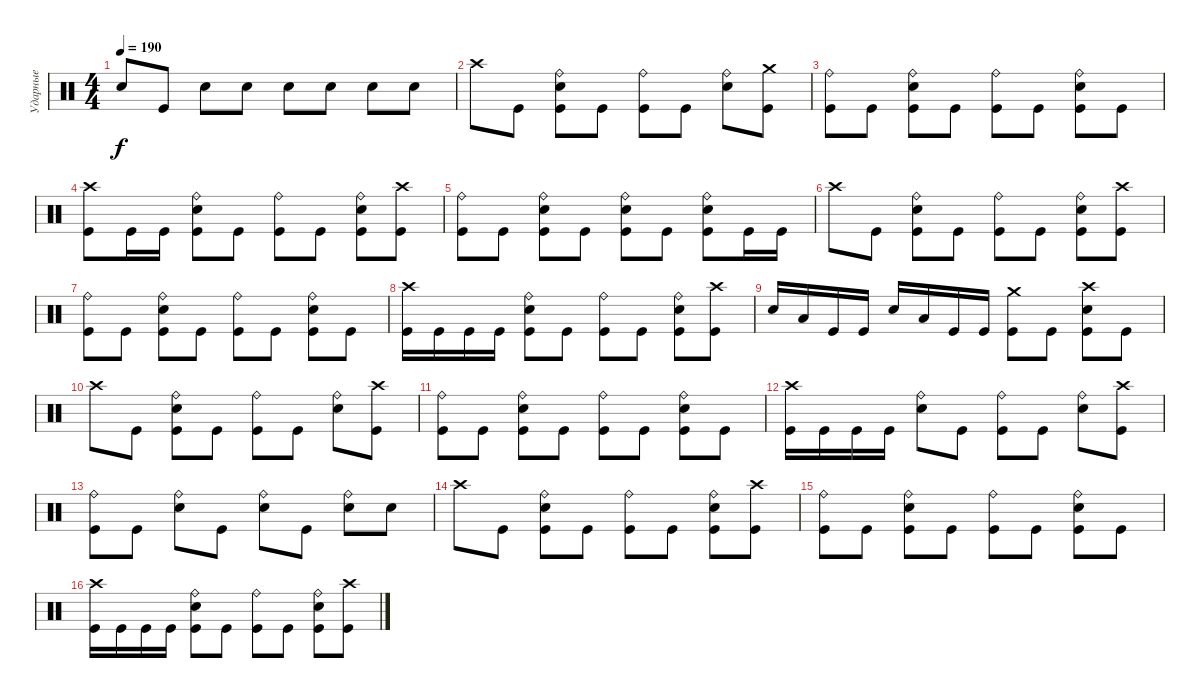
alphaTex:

\track ("Ударные" "Ударные") {instrument percussion}
\staff {score}
\articulation defaults
\ts (4 4)
\tempo 190
\clef neutral
\ks c "Electric Snare (hit)".8{dy f} "Kick (hit)".8 "Electric Snare (hit)".8 "Electric Snare (hit)".8 "Electric Snare (hit)".8 "Electric Snare (hit)".8 "Electric Snare (hit)".8 "Electric Snare (hit)".8
|
"Crash high (hit)".8 "Kick (hit)".8 ("Ride (bell)" "Electric Snare (hit)" "Kick (hit)").8 "Kick (hit)".8 ("Ride (bell)" "Kick (hit)").8 "Kick (hit)".8 ("Ride (bell)" "Electric Snare (hit)").8 ("Crash medium (hit)" "Kick (hit)").8 |
("Ride (bell)" "Kick (hit)").8 "Kick (hit)".8 ("Ride (bell)" "Electric Snare (hit)" "Kick (hit)").8 "Kick (hit)".8 ("Ride (bell)" "Kick (hit)").8 "Kick (hit)".8 ("Ride (bell)" "Electric Snare (hit)" "Kick (hit)").8 "Kick (hit)".8 |
("Crash high (hit)" "Kick (hit)").8 "Kick (hit)".16 "Kick (hit)".16 ("Ride (bell)" "Electric Snare (hit)" "Kick (hit)").8 "Kick (hit)".8 ("Ride (bell)" "Kick (hit)").8 "Kick (hit)".8 ("Ride (bell)" "Electric Snare (hit)" "Kick (hit)").8 ("Crash high (hit)" "Kick (hit)").8 |
("Ride (bell)" "Kick (hit)").8 "Kick (hit)".8 ("Ride (bell)" "Electric Snare (hit)" "Kick (hit)").8 "Kick (hit)".8 ("Ride (bell)" "Electric Snare (hit)" "Kick (hit)").8 "Kick (hit)".8 ("Ride (bell)" "Electric Snare (hit)" "Kick (hit)").8 "Kick (hit)".16 "Kick (hit)".16 |
"Crash high (hit)".8 "Kick (hit)".8 ("Ride (bell)" "Electric Snare (hit)" "Kick (hit)").8 "Kick (hit)".8 ("Ride (bell)" "Kick (hit)").8 "Kick (hit)".8 ("Ride (bell)" "Electric Snare (hit)" "Kick (hit)").8 ("Crash high (hit)" "Kick (hit)").8 |
("Ride (bell)" "Kick (hit)").8 "Kick (hit)".8 ("Ride (bell)" "Electric Snare (hit)" "Kick (hit)").8 "Kick (hit)".8 ("Ride (bell)" "Kick (hit)").8 "Kick (hit)".8 ("Ride (bell)" "Electric Snare (hit)" "Kick (hit)").8 "Kick (hit)".8 |
("Crash high (hit)" "Kick (hit)").16 "Kick (hit)".16 "Kick (hit)".16 "Kick (hit)".16 ("Ride (bell)" "Electric Snare (hit)" "Kick (hit)").8 "Kick (hit)".8 ("Ride (bell)" "Kick (hit)").8 "Kick (hit)".8 ("Ride (bell)" "Electric Snare (hit)" "Kick (hit)").8 ("Crash high (hit)" "Kick (hit)").8 |
"Electric Snare (hit)".16 "Low Tom (hit)".16 "Kick (hit)".16 "Kick (hit)".16 "Electric Snare (hit)".16 "Low Tom (hit)".16 "Kick (hit)".16 "Kick (hit)".16 ("Crash medium (hit)" "Kick (hit)").8 "Kick (hit)".8 ("Crash high (hit)" "Electric Snare (hit)" "Kick (hit)").8 "Kick (hit)".8 |
"Crash high (hit)".8 "Kick (hit)".8 ("Ride (bell)" "Electric Snare (hit)" "Kick (hit)").8 "Kick (hit)".8 ("Ride (bell)" "Kick (hit)").8 "Kick (hit)".8 ("Ride (bell)" "Electric Snare (hit)").8 ("Crash high (hit)" "Kick (hit)").8 |
("Ride (bell)" "Kick (hit)").8 "Kick (hit)".8 ("Ride (bell)" "Electric Snare (hit)" "Kick (hit)").8 "Kick (hit)".8 ("Ride (bell)" "Kick (hit)").8 "Kick (hit)".8 ("Ride (bell)" "Electric Snare (hit)" "Kick (hit)").8 "Kick (hit)".8 |
("Crash high (hit)" "Kick (hit)").16 "Kick (hit)".16 "Kick (hit)".16 "Kick (hit)".16 ("Ride (bell)" "Electric Snare (hit)").8 "Kick (hit)".8 ("Ride (bell)" "Kick (hit)").8 "Kick (hit)".8 ("Ride (bell)" "Electric Snare (hit)").8 ("Crash high (hit)" "Kick (hit)").8 |
("Ride (bell)" "Kick (hit)").8 "Kick (hit)".8 ("Ride (bell)" "Electric Snare (hit)").8 "Kick (hit)".8 ("Ride (bell)" "Electric Snare (hit)").8 "Kick (hit)".8 ("Ride (bell)" "Electric Snare (hit)").8 "Electric Snare (hit)".8 |
"Crash high (hit)".8 "Kick (hit)".8 ("Ride (bell)" "Electric Snare (hit)" "Kick (hit)").8 "Kick (hit)".8 ("Ride (bell)" "Kick (hit)").8 "Kick (hit)".8 ("Ride (bell)" "Electric Snare (hit)" "Kick (hit)").8 ("Crash high (hit)" "Kick (hit)").8 |
("Ride (bell)" "Kick (hit)").8 "Kick (hit)".8 ("Ride (bell)" "Electric Snare (hit)" "Kick (hit)").8 "Kick (hit)".8 ("Ride (bell)" "Kick (hit)").8 "Kick (hit)".8 ("Ride (bell)" "Electric Snare (hit)" "Kick (hit)").8 "Kick (hit)".8 |
("Crash high (hit)" "Kick (hit)").16 "Kick (hit)".16 "Kick (hit)".16 "Kick (hit)".16 ("Ride (bell)" "Electric Snare (hit)" "Kick (hit)").8 "Kick (hit)".8 ("Ride (bell)" "Kick (hit)").8 "Kick (hit)".8 ("Ride (bell)" "Electric Snare (hit)" "Kick (hit)").8 ("Crash high (hit)" "Kick (hit)").8
